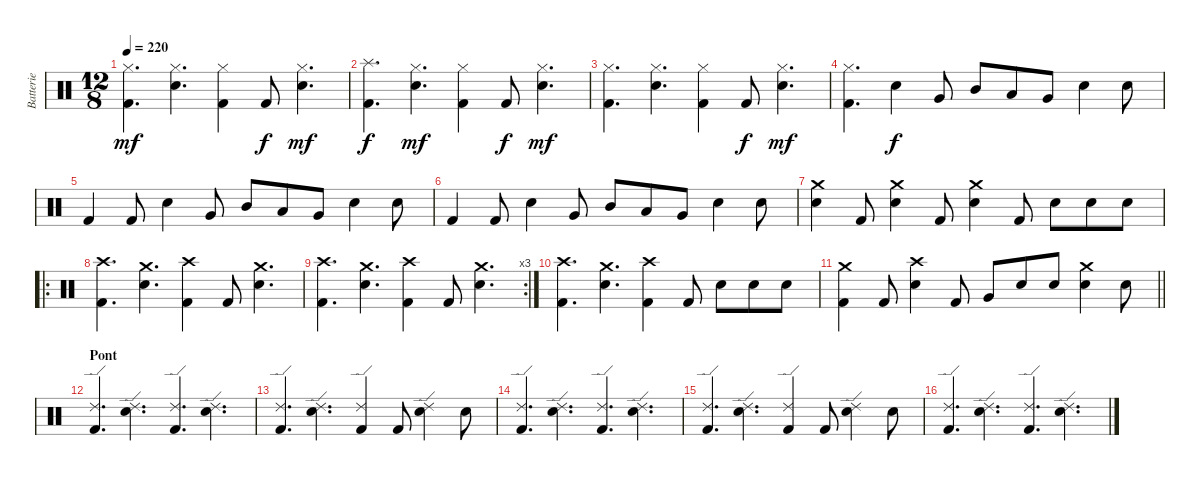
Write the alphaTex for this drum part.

\track ("Batterie" "Batterie") {instrument percussion}
\staff {score}
\articulation defaults
\ts (12 8)
\tempo 220
\clef neutral
\ks c
("Hi-Hat (closed)" "Kick (hit) 2").4{d dy mf} ("Hi-Hat (closed)" "Electric Snare (hit)").4{d} ("Hi-Hat (closed)" "Kick (hit) 2").4 "Kick (hit) 2".8{dy f} ("Hi-Hat (closed)" "Electric Snare (hit)").4{d dy mf} |
("Splash (hit)" "Kick (hit) 2").4{d dy f} ("Hi-Hat (closed)" "Electric Snare (hit)").4{d dy mf} ("Hi-Hat (closed)" "Kick (hit) 2").4 "Kick (hit) 2".8{dy f} ("Hi-Hat (closed)" "Electric Snare (hit)").4{d dy mf} |
("Hi-Hat (closed)" "Kick (hit) 2").4{d} ("Hi-Hat (closed)" "Electric Snare (hit)").4{d} ("Hi-Hat (closed)" "Kick (hit) 2").4 "Kick (hit) 2".8{dy f} ("Hi-Hat (closed)" "Electric Snare (hit)").4{d dy mf} |
("Hi-Hat (closed)" "Kick (hit) 2").4{d} "Electric Snare (hit)".4{dy f} "Very Low Tom (hit)".8 "Mid Tom (hit)".8 "Low Tom (hit)".8 "Very Low Tom (hit)".8 "Electric Snare (hit)".4 "Electric Snare (hit)".8 |
"Kick (hit) 2".4 "Kick (hit) 2".8 "Electric Snare (hit)".4 "Very Low Tom (hit)".8 "Mid Tom (hit)".8 "Low Tom (hit)".8 "Very Low Tom (hit)".8 "Electric Snare (hit)".4 "Electric Snare (hit)".8 |
"Kick (hit) 2".4 "Kick (hit) 2".8 "Electric Snare (hit)".4 "Very Low Tom (hit)".8 "Mid Tom (hit)".8 "Low Tom (hit)".8 "Very Low Tom (hit)".8 "Electric Snare (hit)".4 "Electric Snare (hit)".8 |
("Crash medium (hit)" "Electric Snare (hit)").4 "Kick (hit) 2".8 ("Crash medium (hit)" "Electric Snare (hit)").4 "Kick (hit) 2".8 ("Crash medium (hit)" "Electric Snare (hit)").4 "Kick (hit) 2".8 "Electric Snare (hit)".8 "Electric Snare (hit)".8 "Electric Snare (hit)".8 |
\ro
("Crash high (hit)" "Kick (hit) 2").4{d} ("Crash medium (hit)" "Electric Snare (hit)").4{d} ("Crash high (hit)" "Kick (hit) 2").4 "Kick (hit) 2".8 ("Crash medium (hit)" "Electric Snare (hit)").4{d} |
\rc 3
("Crash high (hit)" "Kick (hit) 2").4{d} ("Crash medium (hit)" "Electric Snare (hit)").4{d} ("Crash high (hit)" "Kick (hit) 2").4 "Kick (hit) 2".8 ("Crash medium (hit)" "Electric Snare (hit)").4{d} |
("Crash high (hit)" "Kick (hit) 2").4{d} ("Crash medium (hit)" "Electric Snare (hit)").4{d} ("Crash high (hit)" "Kick (hit) 2").4 "Kick (hit) 2".8 "Electric Snare (hit)".8 "Electric Snare (hit)".8 "Electric Snare (hit)".8 |
\barLineRight lightlight
("Crash medium (hit)" "Kick (hit) 2").4 "Kick (hit) 2".8 ("Crash high (hit)" "Electric Snare (hit)").4 "Kick (hit) 2".8 "Very Low Tom (hit)".8 "Electric Snare (hit)".8 "Electric Snare (hit)".8 ("Crash medium (hit)" "Electric Snare (hit)").4 "Electric Snare (hit)".8 |
\section ("" "Pont")
("Ride (edge) 2" "Kick (hit) 2").4{d} ("Ride (edge) 2" "Electric Snare (hit)").4{d} ("Ride (edge) 2" "Kick (hit) 2").4{d} ("Ride (edge) 2" "Electric Snare (hit)").4{d} |
("Ride (edge) 2" "Kick (hit) 2").4{d} ("Ride (edge) 2" "Electric Snare (hit)").4{d} ("Ride (edge) 2" "Kick (hit) 2").4 "Kick (hit) 2".8 ("Ride (edge) 2" "Electric Snare (hit)").4 "Electric Snare (hit)".8 |
("Ride (edge) 2" "Kick (hit) 2").4{d} ("Ride (edge) 2" "Electric Snare (hit)").4{d} ("Ride (edge) 2" "Kick (hit) 2").4{d} ("Ride (edge) 2" "Electric Snare (hit)").4{d} |
("Ride (edge) 2" "Kick (hit) 2").4{d} ("Ride (edge) 2" "Electric Snare (hit)").4{d} ("Ride (edge) 2" "Kick (hit) 2").4 "Kick (hit) 2".8 ("Ride (edge) 2" "Electric Snare (hit)").4 "Electric Snare (hit)".8 |
("Ride (edge) 2" "Kick (hit) 2").4{d} ("Ride (edge) 2" "Electric Snare (hit)").4{d} ("Ride (edge) 2" "Kick (hit) 2").4{d} ("Ride (edge) 2" "Electric Snare (hit)").4{d}
